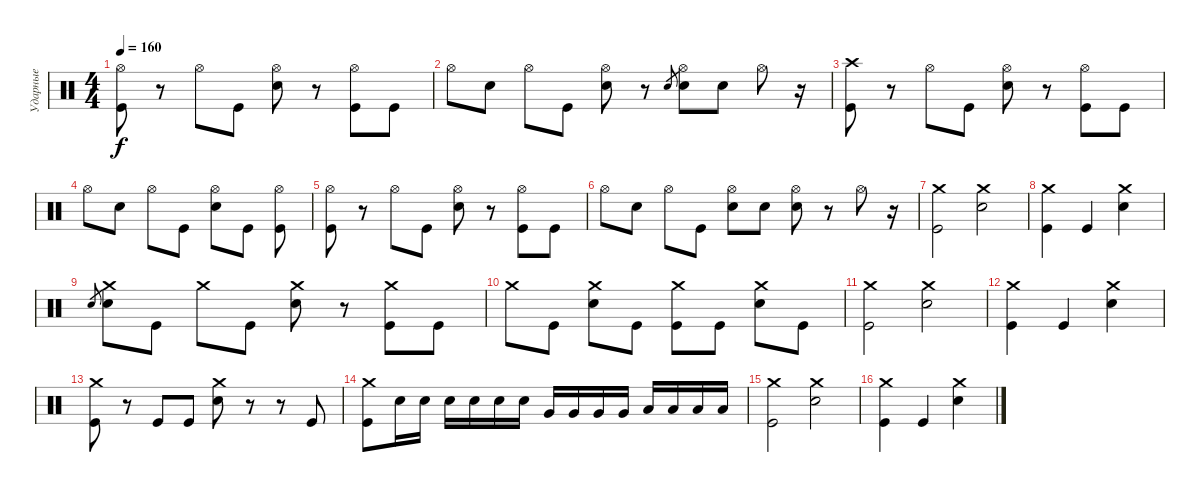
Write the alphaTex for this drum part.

\track ("Ударные" "Ударные") {instrument percussion}
\staff {score}
\articulation defaults
\ts (4 4)
\tempo 160
\clef neutral
\ks c
("Hi-Hat (open)" "Kick (hit)").8{dy f} r.8 "Hi-Hat (open)".8 "Kick (hit)".8 ("Hi-Hat (open)" "Electric Snare (hit)").8 r.8 ("Hi-Hat (open)" "Kick (hit)").8 "Kick (hit)".8 |
"Hi-Hat (open)".8 "Electric Snare (hit)".8 "Hi-Hat (open)".8 "Kick (hit)".8 ("Hi-Hat (open)" "Electric Snare (hit)").8 r.8 "Electric Snare (hit)".8{gr} ("Hi-Hat (open)" "Electric Snare (hit)").8 "Electric Snare (hit)".8 "Hi-Hat (open)".8 r.16 |
("Crash high (hit)" "Kick (hit)").8 r.8 "Hi-Hat (open)".8 "Kick (hit)".8 ("Hi-Hat (open)" "Electric Snare (hit)").8 r.8 ("Hi-Hat (open)" "Kick (hit)").8 "Kick (hit)".8 |
"Hi-Hat (open)".8 "Electric Snare (hit)".8 "Hi-Hat (open)".8 "Kick (hit)".8 ("Hi-Hat (open)" "Electric Snare (hit)").8 "Kick (hit)".8 ("Hi-Hat (open)" "Kick (hit)").8 |
("Hi-Hat (open)" "Kick (hit)").8 r.8 "Hi-Hat (open)".8 "Kick (hit)".8 ("Hi-Hat (open)" "Electric Snare (hit)").8 r.8 ("Hi-Hat (open)" "Kick (hit)").8 "Kick (hit)".8 |
"Hi-Hat (open)".8 "Electric Snare (hit)".8 "Hi-Hat (open)".8 "Kick (hit)".8 ("Hi-Hat (open)" "Electric Snare (hit)").8 "Electric Snare (hit)".8 ("Hi-Hat (open)" "Electric Snare (hit)").8 r.8 "Hi-Hat (open)".8 r.16 |
("Crash medium (hit)" "Kick (hit)").2 ("Crash medium (hit)" "Electric Snare (hit)").2 |
("Crash medium (hit)" "Kick (hit)").4 "Kick (hit)".4 ("Crash medium (hit)" "Electric Snare (hit)").4 |
"Electric Snare (hit)".8{gr} ("Crash medium (hit)" "Electric Snare (hit)").8 "Kick (hit)".8 "Crash medium (hit)".8 "Kick (hit)".8 ("Crash medium (hit)" "Electric Snare (hit)").8 r.8 ("Crash medium (hit)" "Kick (hit)").8 "Kick (hit)".8 |
"Crash medium (hit)".8 "Kick (hit)".8 ("Crash medium (hit)" "Electric Snare (hit)").8 "Kick (hit)".8 ("Crash medium (hit)" "Kick (hit)").8 "Kick (hit)".8 ("Crash medium (hit)" "Electric Snare (hit)").8 "Kick (hit)".8 |
("Crash medium (hit)" "Kick (hit)").2 ("Crash medium (hit)" "Electric Snare (hit)").2 |
("Crash medium (hit)" "Kick (hit)").4 "Kick (hit)".4 ("Crash medium (hit)" "Electric Snare (hit)").4 |
("Crash medium (hit)" "Kick (hit)").8 r.8 "Kick (hit)".8 "Kick (hit)".8 ("Crash medium (hit)" "Electric Snare (hit)").8 r.8 r.8 "Kick (hit)".8 |
("Crash medium (hit)" "Kick (hit)").8 "Electric Snare (hit)".16 "Electric Snare (hit)".16 "Electric Snare (hit)".16 "Electric Snare (hit)".16 "Electric Snare (hit)".16 "Electric Snare (hit)".16 "Very Low Tom (hit)".16 "Very Low Tom (hit)".16 "Very Low Tom (hit)".16 "Very Low Tom (hit)".16 "Low Floor Tom (hit)".16 "Low Floor Tom (hit)".16 "Low Floor Tom (hit)".16 "Low Floor Tom (hit)".16 |
("Crash medium (hit)" "Kick (hit)").2 ("Crash medium (hit)" "Electric Snare (hit)").2 |
("Crash medium (hit)" "Kick (hit)").4 "Kick (hit)".4 ("Crash medium (hit)" "Electric Snare (hit)").4
